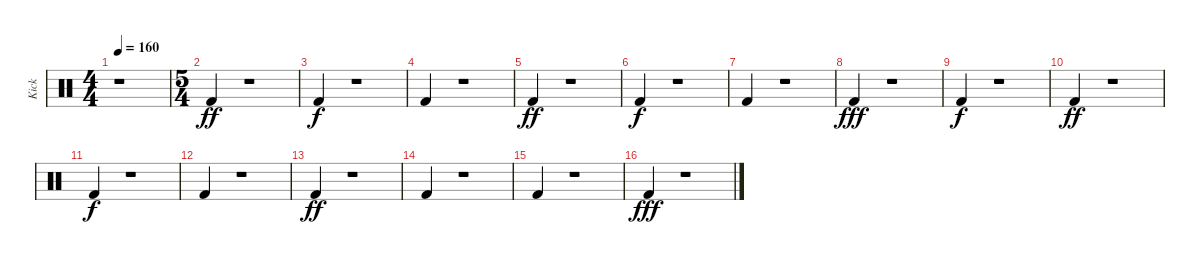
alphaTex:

\track ("Kick" "Kick") {instrument percussion}
\staff {score}
\articulation defaults
\ts (4 4)
\tempo 160
\clef neutral
\ks c
r.1{dy ff} |
\ts (5 4)
"Kick (hit) 2".4{volume 14} r.1 |
"Kick (hit) 2".4{dy f} r.1 |
"Kick (hit) 2".4 r.1 |
"Kick (hit) 2".4{dy ff} r.1 |
"Kick (hit) 2".4{dy f} r.1 |
"Kick (hit) 2".4 r.1 |
"Kick (hit) 2".4{dy fff} r.1 |
"Kick (hit) 2".4{dy f} r.1 |
"Kick (hit) 2".4{dy ff} r.1 |
"Kick (hit) 2".4{dy f} r.1 |
"Kick (hit) 2".4 r.1 |
"Kick (hit) 2".4{dy ff} r.1 |
"Kick (hit) 2".4 r.1 |
"Kick (hit) 2".4 r.1 |
"Kick (hit) 2".4{dy fff} r.1
